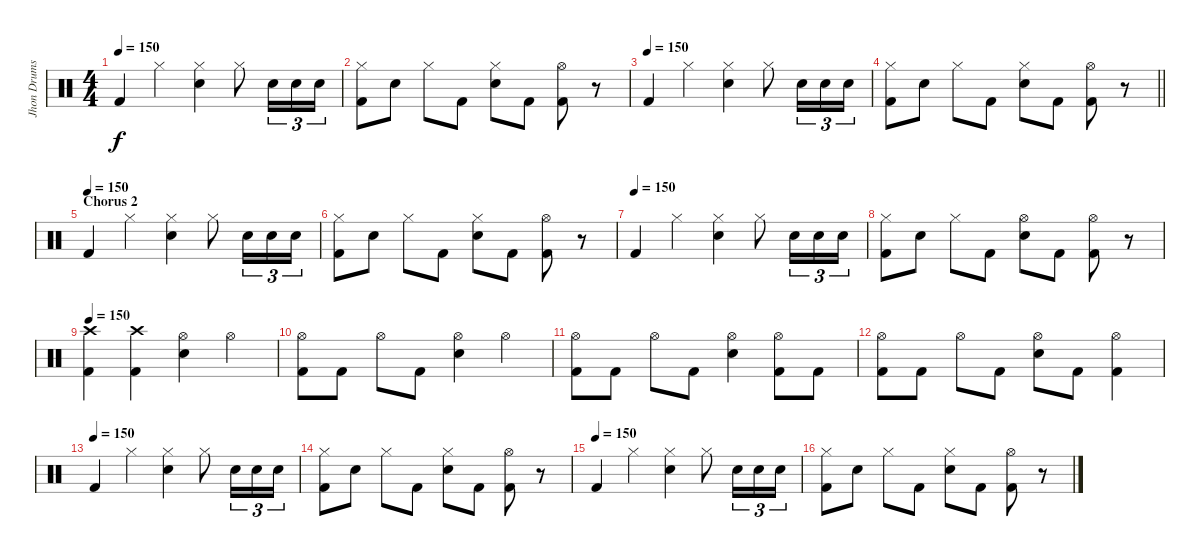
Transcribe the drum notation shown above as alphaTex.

\track ("Jhon Drums" "Jhon Drums") {instrument percussion}
\staff {score}
\articulation defaults
\ts (4 4)
\tempo 150
\clef neutral
\ks c "Kick (hit) 2".4{dy f} "Hi-Hat (closed)".4
("Hi-Hat (closed)" "Electric Snare (hit)").4 "Hi-Hat (closed)".8 "Electric Snare (hit)".16{tu (3 2)} "Electric Snare (hit)".16{tu (3 2)} "Electric Snare (hit)".16{tu (3 2)} |
("Hi-Hat (closed)" "Kick (hit) 2").8 "Electric Snare (hit)".8 "Hi-Hat (closed)".8 "Kick (hit) 2".8 ("Hi-Hat (closed)" "Electric Snare (hit)").8 "Kick (hit) 2".8 ("Hi-Hat (open)" "Kick (hit) 2").8 r.8 |
\tempo (150)
"Kick (hit) 2".4 "Hi-Hat (closed)".4 ("Hi-Hat (closed)" "Electric Snare (hit)").4 "Hi-Hat (closed)".8 "Electric Snare (hit)".16{tu (3 2)} "Electric Snare (hit)".16{tu (3 2)} "Electric Snare (hit)".16{tu (3 2)} |
\barLineRight lightlight
("Hi-Hat (closed)" "Kick (hit) 2").8 "Electric Snare (hit)".8 "Hi-Hat (closed)".8 "Kick (hit) 2".8 ("Hi-Hat (closed)" "Electric Snare (hit)").8 "Kick (hit) 2".8 ("Hi-Hat (open)" "Kick (hit) 2").8 r.8 |
\section ("" "Chorus 2")
\tempo (150)
"Kick (hit) 2".4 "Hi-Hat (closed)".4 ("Hi-Hat (closed)" "Electric Snare (hit)").4 "Hi-Hat (closed)".8 "Electric Snare (hit)".16{tu (3 2)} "Electric Snare (hit)".16{tu (3 2)} "Electric Snare (hit)".16{tu (3 2)} |
("Hi-Hat (closed)" "Kick (hit) 2").8 "Electric Snare (hit)".8 "Hi-Hat (closed)".8 "Kick (hit) 2".8 ("Hi-Hat (closed)" "Electric Snare (hit)").8 "Kick (hit) 2".8 ("Hi-Hat (open)" "Kick (hit) 2").8 r.8 |
\tempo (150)
"Kick (hit) 2".4 "Hi-Hat (closed)".4 ("Hi-Hat (closed)" "Electric Snare (hit)").4 "Hi-Hat (closed)".8 "Electric Snare (hit)".16{tu (3 2)} "Electric Snare (hit)".16{tu (3 2)} "Electric Snare (hit)".16{tu (3 2)} |
("Hi-Hat (closed)" "Kick (hit) 2").8 "Electric Snare (hit)".8 "Hi-Hat (closed)".8 "Kick (hit) 2".8 ("Hi-Hat (open)" "Electric Snare (hit)").8 "Kick (hit) 2".8 ("Hi-Hat (open)" "Kick (hit) 2").8 r.8 |
\tempo 150
("Crash high (hit)" "Kick (hit) 2").4 ("Crash high (hit)" "Kick (hit) 2").4 ("Hi-Hat (open)" "Electric Snare (hit)").4 "Hi-Hat (open)".4 |
("Hi-Hat (open)" "Kick (hit) 2").8 "Kick (hit) 2".8 "Hi-Hat (open)".8 "Kick (hit) 2".8 ("Hi-Hat (open)" "Electric Snare (hit)").4 "Hi-Hat (open)".4 |
("Hi-Hat (open)" "Kick (hit) 2").8 "Kick (hit) 2".8 "Hi-Hat (open)".8 "Kick (hit) 2".8 ("Hi-Hat (open)" "Electric Snare (hit)").4 ("Hi-Hat (open)" "Kick (hit) 2").8 "Kick (hit) 2".8 |
("Hi-Hat (open)" "Kick (hit) 2").8 "Kick (hit) 2".8 "Hi-Hat (open)".8 "Kick (hit) 2".8 ("Hi-Hat (open)" "Electric Snare (hit)").8 "Kick (hit) 2".8 ("Hi-Hat (open)" "Kick (hit) 2").4 |
\tempo (150)
"Kick (hit) 2".4 "Hi-Hat (closed)".4 ("Hi-Hat (closed)" "Electric Snare (hit)").4 "Hi-Hat (closed)".8 "Electric Snare (hit)".16{tu (3 2)} "Electric Snare (hit)".16{tu (3 2)} "Electric Snare (hit)".16{tu (3 2)} |
("Hi-Hat (closed)" "Kick (hit) 2").8 "Electric Snare (hit)".8 "Hi-Hat (closed)".8 "Kick (hit) 2".8 ("Hi-Hat (closed)" "Electric Snare (hit)").8 "Kick (hit) 2".8 ("Hi-Hat (open)" "Kick (hit) 2").8 r.8 |
\tempo (150)
"Kick (hit) 2".4 "Hi-Hat (closed)".4 ("Hi-Hat (closed)" "Electric Snare (hit)").4 "Hi-Hat (closed)".8 "Electric Snare (hit)".16{tu (3 2)} "Electric Snare (hit)".16{tu (3 2)} "Electric Snare (hit)".16{tu (3 2)} |
("Hi-Hat (closed)" "Kick (hit) 2").8 "Electric Snare (hit)".8 "Hi-Hat (closed)".8 "Kick (hit) 2".8 ("Hi-Hat (closed)" "Electric Snare (hit)").8 "Kick (hit) 2".8 ("Hi-Hat (open)" "Kick (hit) 2").8 r.8
